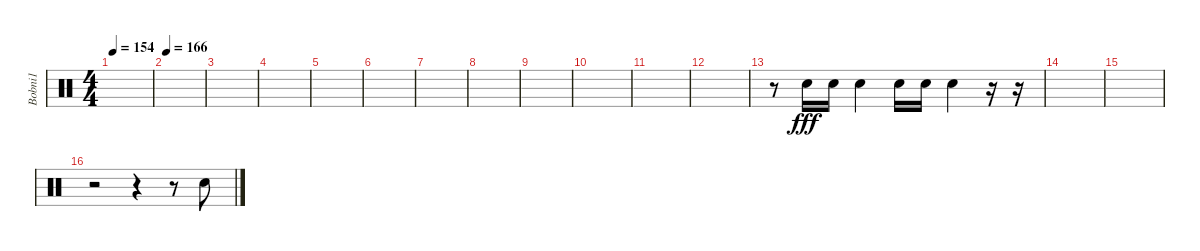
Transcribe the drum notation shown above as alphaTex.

\track ("Bobni1" "Bobni1") {instrument percussion}
\staff {score}
\articulation defaults
\ts (4 4)
\tempo 154
\clef neutral
\ks c
|
\tempo 166
|
|
|
|
|
|
|
|
|
|
|
r.8 "Snare (hit) 2".16{dy fff} "Snare (hit) 2".16 "Snare (hit) 2".4 "Snare (hit) 2".16 "Snare (hit) 2".16 "Snare (hit) 2".4 r.16 r.16 |
|
|
r.2 r.4 r.8 "Snare (hit) 2".8
